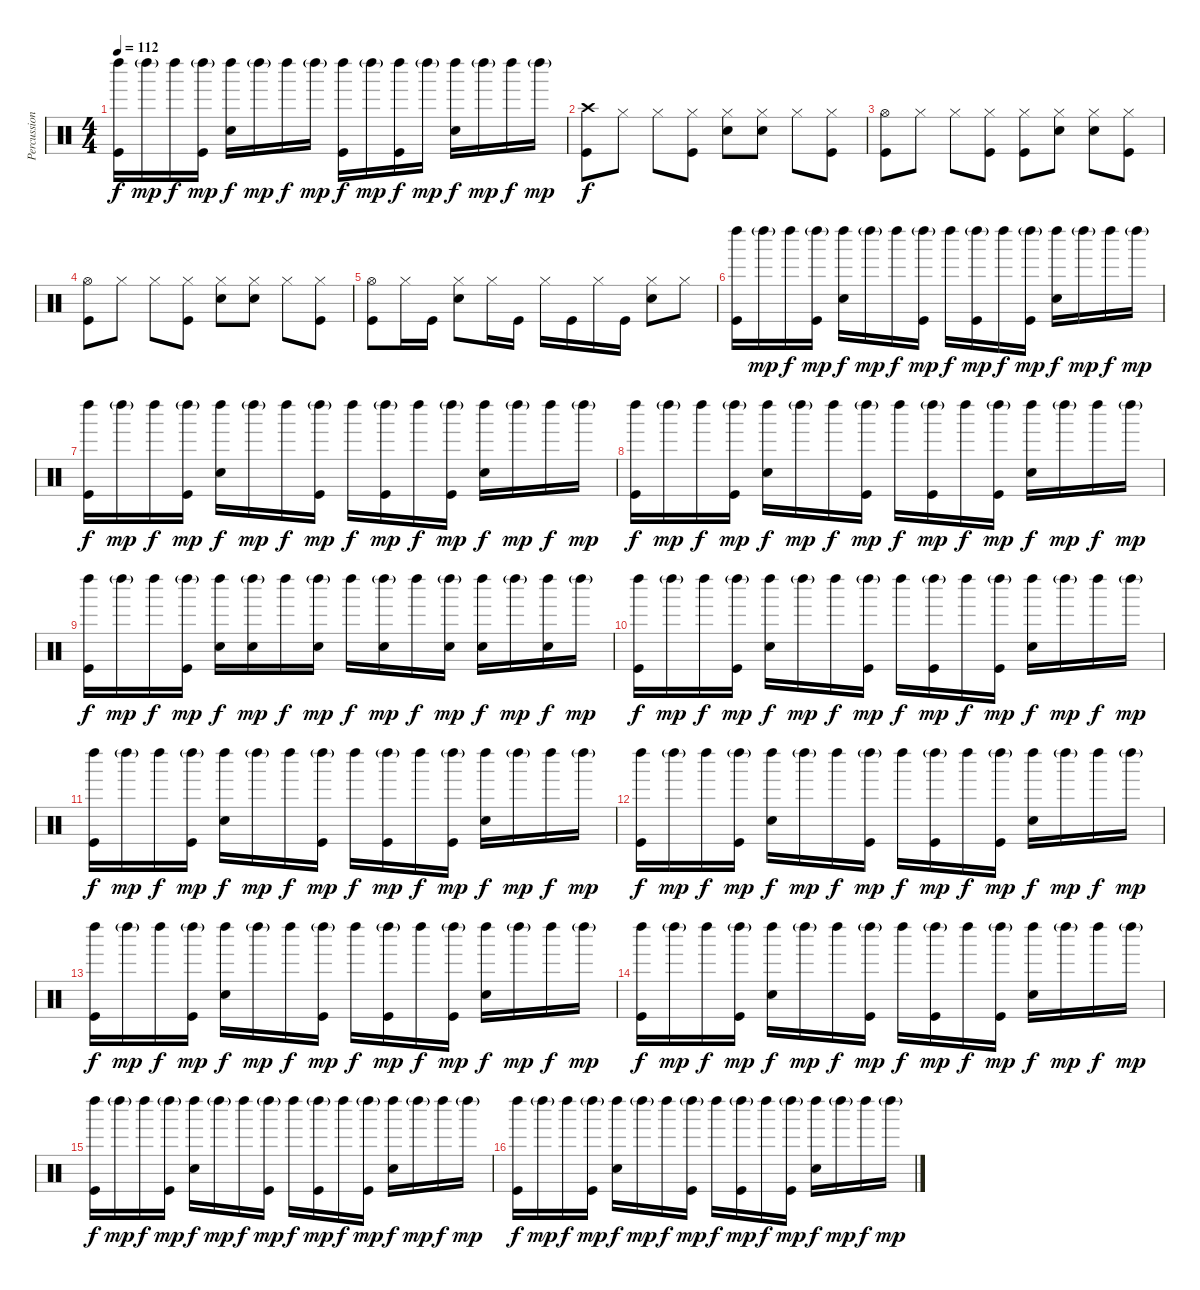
\track ("Percussion" "Percussion") {instrument percussion}
\staff {score}
\articulation defaults
\ts (4 4)
\tempo 112
\clef neutral
\ks c
("Left Maraca (hit)" "Kick (hit)").16{dy f} "Left Maraca (hit)"{g}.16{dy mp} "Left Maraca (hit)".16{dy f} ("Left Maraca (hit)"{g} "Kick (hit)").16{dy mp} ("Left Maraca (hit)" "Snare (hit) 2").16{dy f} "Left Maraca (hit)"{g}.16{dy mp} "Left Maraca (hit)".16{dy f} "Left Maraca (hit)"{g}.16{dy mp} ("Left Maraca (hit)" "Kick (hit)").16{dy f} "Left Maraca (hit)"{g}.16{dy mp} ("Left Maraca (hit)" "Kick (hit)").16{dy f} "Left Maraca (hit)"{g}.16{dy mp} ("Left Maraca (hit)" "Snare (hit) 2").16{dy f} "Left Maraca (hit)"{g}.16{dy mp} "Left Maraca (hit)".16{dy f} "Left Maraca (hit)"{g}.16{dy mp} |
("Crash high (hit)" "Kick (hit)").8{dy f} "Hi-Hat (closed)".8 "Hi-Hat (closed)".8 ("Hi-Hat (closed)" "Kick (hit)").8 ("Hi-Hat (closed)" "Snare (hit) 2").8 ("Hi-Hat (closed)" "Snare (hit) 2").8 "Hi-Hat (closed)".8 ("Hi-Hat (closed)" "Kick (hit)").8 |
("Hi-Hat (open)" "Kick (hit)").8 "Hi-Hat (closed)".8 "Hi-Hat (closed)".8 ("Hi-Hat (closed)" "Kick (hit)").8 ("Hi-Hat (closed)" "Kick (hit)").8 ("Hi-Hat (closed)" "Snare (hit) 2").8 ("Hi-Hat (closed)" "Snare (hit) 2").8 ("Hi-Hat (closed)" "Kick (hit)").8 |
("Hi-Hat (open)" "Kick (hit)").8 "Hi-Hat (closed)".8 "Hi-Hat (closed)".8 ("Hi-Hat (closed)" "Kick (hit)").8 ("Hi-Hat (closed)" "Snare (hit) 2").8 ("Hi-Hat (closed)" "Snare (hit) 2").8 "Hi-Hat (closed)".8 ("Hi-Hat (closed)" "Kick (hit)").8 |
("Hi-Hat (open)" "Kick (hit)").8 "Hi-Hat (closed)".16 "Kick (hit)".16 ("Hi-Hat (closed)" "Snare (hit) 2").8 "Hi-Hat (closed)".16 "Kick (hit)".16 "Hi-Hat (closed)".16 "Kick (hit)".16 "Hi-Hat (closed)".16 "Kick (hit)".16 ("Hi-Hat (closed)" "Snare (hit) 2").8 "Hi-Hat (closed)".8 |
("Left Maraca (hit)" "Kick (hit)").16 "Left Maraca (hit)"{g}.16{dy mp} "Left Maraca (hit)".16{dy f} ("Left Maraca (hit)"{g} "Kick (hit)").16{dy mp} ("Left Maraca (hit)" "Snare (hit) 2").16{dy f} "Left Maraca (hit)"{g}.16{dy mp} "Left Maraca (hit)".16{dy f} ("Left Maraca (hit)"{g} "Kick (hit)").16{dy mp} "Left Maraca (hit)".16{dy f} ("Left Maraca (hit)"{g} "Kick (hit)").16{dy mp} "Left Maraca (hit)".16{dy f} ("Left Maraca (hit)"{g} "Kick (hit)").16{dy mp} ("Left Maraca (hit)" "Snare (hit) 2").16{dy f} "Left Maraca (hit)"{g}.16{dy mp} "Left Maraca (hit)".16{dy f} "Left Maraca (hit)"{g}.16{dy mp} |
("Left Maraca (hit)" "Kick (hit)").16{dy f} "Left Maraca (hit)"{g}.16{dy mp} "Left Maraca (hit)".16{dy f} ("Left Maraca (hit)"{g} "Kick (hit)").16{dy mp} ("Left Maraca (hit)" "Snare (hit) 2").16{dy f} "Left Maraca (hit)"{g}.16{dy mp} "Left Maraca (hit)".16{dy f} ("Left Maraca (hit)"{g} "Kick (hit)").16{dy mp} "Left Maraca (hit)".16{dy f} ("Left Maraca (hit)"{g} "Kick (hit)").16{dy mp} "Left Maraca (hit)".16{dy f} ("Left Maraca (hit)"{g} "Kick (hit)").16{dy mp} ("Left Maraca (hit)" "Snare (hit) 2").16{dy f} "Left Maraca (hit)"{g}.16{dy mp} "Left Maraca (hit)".16{dy f} "Left Maraca (hit)"{g}.16{dy mp} |
("Left Maraca (hit)" "Kick (hit)").16{dy f} "Left Maraca (hit)"{g}.16{dy mp} "Left Maraca (hit)".16{dy f} ("Left Maraca (hit)"{g} "Kick (hit)").16{dy mp} ("Left Maraca (hit)" "Snare (hit) 2").16{dy f} "Left Maraca (hit)"{g}.16{dy mp} "Left Maraca (hit)".16{dy f} ("Left Maraca (hit)"{g} "Kick (hit)").16{dy mp} "Left Maraca (hit)".16{dy f} ("Left Maraca (hit)"{g} "Kick (hit)").16{dy mp} "Left Maraca (hit)".16{dy f} ("Left Maraca (hit)"{g} "Kick (hit)").16{dy mp} ("Left Maraca (hit)" "Snare (hit) 2").16{dy f} "Left Maraca (hit)"{g}.16{dy mp} "Left Maraca (hit)".16{dy f} "Left Maraca (hit)"{g}.16{dy mp} |
("Left Maraca (hit)" "Kick (hit)").16{dy f} "Left Maraca (hit)"{g}.16{dy mp} "Left Maraca (hit)".16{dy f} ("Left Maraca (hit)"{g} "Kick (hit)").16{dy mp} ("Left Maraca (hit)" "Snare (hit) 2").16{dy f} ("Left Maraca (hit)"{g} "Snare (hit) 2").16{dy mp} "Left Maraca (hit)".16{dy f} ("Left Maraca (hit)"{g} "Snare (hit) 2").16{dy mp} "Left Maraca (hit)".16{dy f} ("Left Maraca (hit)"{g} "Snare (hit) 2").16{dy mp} "Left Maraca (hit)".16{dy f} ("Left Maraca (hit)"{g} "Snare (hit) 2").16{dy mp} ("Left Maraca (hit)" "Snare (hit) 2").16{dy f} "Left Maraca (hit)"{g}.16{dy mp} ("Left Maraca (hit)" "Snare (hit) 2").16{dy f} "Left Maraca (hit)"{g}.16{dy mp} |
("Left Maraca (hit)" "Kick (hit)").16{dy f} "Left Maraca (hit)"{g}.16{dy mp} "Left Maraca (hit)".16{dy f} ("Left Maraca (hit)"{g} "Kick (hit)").16{dy mp} ("Left Maraca (hit)" "Snare (hit) 2").16{dy f} "Left Maraca (hit)"{g}.16{dy mp} "Left Maraca (hit)".16{dy f} ("Left Maraca (hit)"{g} "Kick (hit)").16{dy mp} "Left Maraca (hit)".16{dy f} ("Left Maraca (hit)"{g} "Kick (hit)").16{dy mp} "Left Maraca (hit)".16{dy f} ("Left Maraca (hit)"{g} "Kick (hit)").16{dy mp} ("Left Maraca (hit)" "Snare (hit) 2").16{dy f} "Left Maraca (hit)"{g}.16{dy mp} "Left Maraca (hit)".16{dy f} "Left Maraca (hit)"{g}.16{dy mp} |
("Left Maraca (hit)" "Kick (hit)").16{dy f} "Left Maraca (hit)"{g}.16{dy mp} "Left Maraca (hit)".16{dy f} ("Left Maraca (hit)"{g} "Kick (hit)").16{dy mp} ("Left Maraca (hit)" "Snare (hit) 2").16{dy f} "Left Maraca (hit)"{g}.16{dy mp} "Left Maraca (hit)".16{dy f} ("Left Maraca (hit)"{g} "Kick (hit)").16{dy mp} "Left Maraca (hit)".16{dy f} ("Left Maraca (hit)"{g} "Kick (hit)").16{dy mp} "Left Maraca (hit)".16{dy f} ("Left Maraca (hit)"{g} "Kick (hit)").16{dy mp} ("Left Maraca (hit)" "Snare (hit) 2").16{dy f} "Left Maraca (hit)"{g}.16{dy mp} "Left Maraca (hit)".16{dy f} "Left Maraca (hit)"{g}.16{dy mp} |
("Left Maraca (hit)" "Kick (hit)").16{dy f} "Left Maraca (hit)"{g}.16{dy mp} "Left Maraca (hit)".16{dy f} ("Left Maraca (hit)"{g} "Kick (hit)").16{dy mp} ("Left Maraca (hit)" "Snare (hit) 2").16{dy f} "Left Maraca (hit)"{g}.16{dy mp} "Left Maraca (hit)".16{dy f} ("Left Maraca (hit)"{g} "Kick (hit)").16{dy mp} "Left Maraca (hit)".16{dy f} ("Left Maraca (hit)"{g} "Kick (hit)").16{dy mp} "Left Maraca (hit)".16{dy f} ("Left Maraca (hit)"{g} "Kick (hit)").16{dy mp} ("Left Maraca (hit)" "Snare (hit) 2").16{dy f} "Left Maraca (hit)"{g}.16{dy mp} "Left Maraca (hit)".16{dy f} "Left Maraca (hit)"{g}.16{dy mp} |
("Left Maraca (hit)" "Kick (hit)").16{dy f} "Left Maraca (hit)"{g}.16{dy mp} "Left Maraca (hit)".16{dy f} ("Left Maraca (hit)"{g} "Kick (hit)").16{dy mp} ("Left Maraca (hit)" "Snare (hit) 2").16{dy f} "Left Maraca (hit)"{g}.16{dy mp} "Left Maraca (hit)".16{dy f} ("Left Maraca (hit)"{g} "Kick (hit)").16{dy mp} "Left Maraca (hit)".16{dy f} ("Left Maraca (hit)"{g} "Kick (hit)").16{dy mp} "Left Maraca (hit)".16{dy f} ("Left Maraca (hit)"{g} "Kick (hit)").16{dy mp} ("Left Maraca (hit)" "Snare (hit) 2").16{dy f} "Left Maraca (hit)"{g}.16{dy mp} "Left Maraca (hit)".16{dy f} "Left Maraca (hit)"{g}.16{dy mp} |
("Left Maraca (hit)" "Kick (hit)").16{dy f} "Left Maraca (hit)"{g}.16{dy mp} "Left Maraca (hit)".16{dy f} ("Left Maraca (hit)"{g} "Kick (hit)").16{dy mp} ("Left Maraca (hit)" "Snare (hit) 2").16{dy f} "Left Maraca (hit)"{g}.16{dy mp} "Left Maraca (hit)".16{dy f} ("Left Maraca (hit)"{g} "Kick (hit)").16{dy mp} "Left Maraca (hit)".16{dy f} ("Left Maraca (hit)"{g} "Kick (hit)").16{dy mp} "Left Maraca (hit)".16{dy f} ("Left Maraca (hit)"{g} "Kick (hit)").16{dy mp} ("Left Maraca (hit)" "Snare (hit) 2").16{dy f} "Left Maraca (hit)"{g}.16{dy mp} "Left Maraca (hit)".16{dy f} "Left Maraca (hit)"{g}.16{dy mp} |
("Left Maraca (hit)" "Kick (hit)").16{dy f} "Left Maraca (hit)"{g}.16{dy mp} "Left Maraca (hit)".16{dy f} ("Left Maraca (hit)"{g} "Kick (hit)").16{dy mp} ("Left Maraca (hit)" "Snare (hit) 2").16{dy f} "Left Maraca (hit)"{g}.16{dy mp} "Left Maraca (hit)".16{dy f} ("Left Maraca (hit)"{g} "Kick (hit)").16{dy mp} "Left Maraca (hit)".16{dy f} ("Left Maraca (hit)"{g} "Kick (hit)").16{dy mp} "Left Maraca (hit)".16{dy f} ("Left Maraca (hit)"{g} "Kick (hit)").16{dy mp} ("Left Maraca (hit)" "Snare (hit) 2").16{dy f} "Left Maraca (hit)"{g}.16{dy mp} "Left Maraca (hit)".16{dy f} "Left Maraca (hit)"{g}.16{dy mp} |
("Left Maraca (hit)" "Kick (hit)").16{dy f} "Left Maraca (hit)"{g}.16{dy mp} "Left Maraca (hit)".16{dy f} ("Left Maraca (hit)"{g} "Kick (hit)").16{dy mp} ("Left Maraca (hit)" "Snare (hit) 2").16{dy f} "Left Maraca (hit)"{g}.16{dy mp} "Left Maraca (hit)".16{dy f} ("Left Maraca (hit)"{g} "Kick (hit)").16{dy mp} "Left Maraca (hit)".16{dy f} ("Left Maraca (hit)"{g} "Kick (hit)").16{dy mp} "Left Maraca (hit)".16{dy f} ("Left Maraca (hit)"{g} "Kick (hit)").16{dy mp} ("Left Maraca (hit)" "Snare (hit) 2").16{dy f} "Left Maraca (hit)"{g}.16{dy mp} "Left Maraca (hit)".16{dy f} "Left Maraca (hit)"{g}.16{dy mp}
